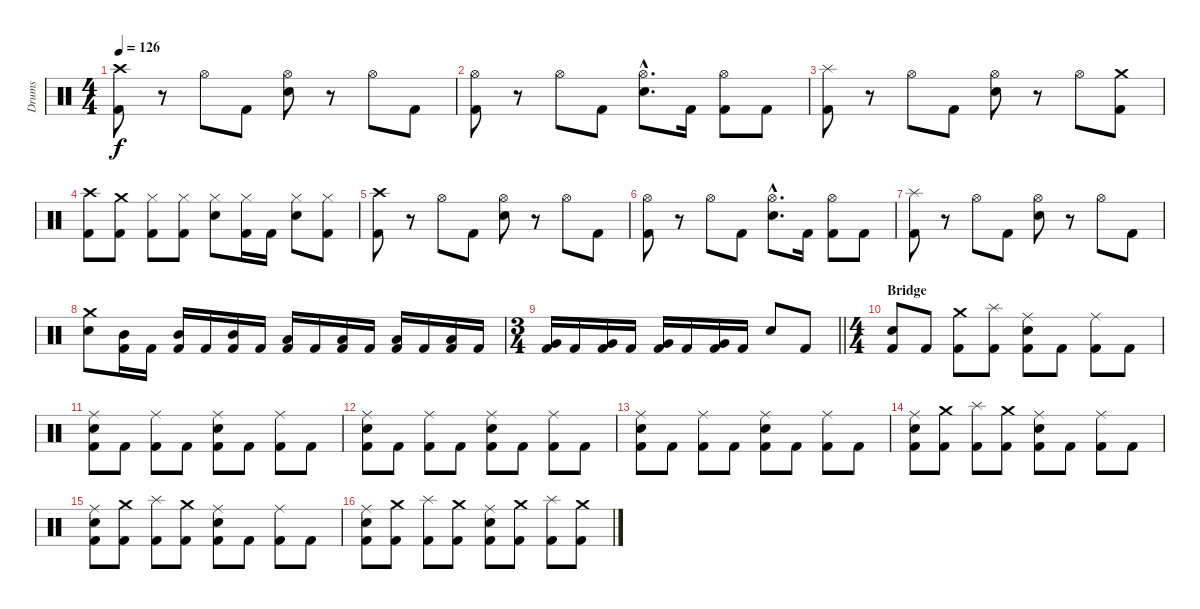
\track ("Drums" "Drums") {instrument percussion}
\staff {score}
\articulation defaults
\ts (4 4)
\tempo 126
\clef neutral
\ks c
("Crash high (hit)" "Kick (hit) 2").8{dy f} r.8 "Hi-Hat (open)".8 "Kick (hit) 2".8 ("Hi-Hat (open)" "Electric Snare (hit)").8 r.8 "Hi-Hat (open)".8 "Kick (hit) 2".8 |
("Hi-Hat (open)" "Kick (hit) 2").8 r.8 "Hi-Hat (open)".8 "Kick (hit) 2".8 ("Hi-Hat (open)"{hac} "Electric Snare (hit)"{hac}).8{d} "Kick (hit) 2".16 ("Hi-Hat (open)" "Kick (hit) 2").8 "Kick (hit) 2".8 |
("Splash (hit)" "Kick (hit) 2").8 r.8 "Hi-Hat (open)".8 "Kick (hit) 2".8 ("Hi-Hat (open)" "Electric Snare (hit)").8 r.8 "Hi-Hat (open)".8 ("Crash medium (hit)" "Kick (hit) 2").8 |
("Crash high (hit)" "Kick (hit) 2").8 ("Crash medium (hit)" "Kick (hit) 2").8 ("Hi-Hat (closed)" "Kick (hit) 2").8 ("Hi-Hat (closed)" "Kick (hit) 2").8 ("Hi-Hat (closed)" "Electric Snare (hit)").8 ("Hi-Hat (closed)" "Kick (hit) 2").16 "Kick (hit) 2".16 ("Hi-Hat (closed)" "Electric Snare (hit)").8 ("Hi-Hat (closed)" "Kick (hit) 2").8 |
("Crash high (hit)" "Kick (hit) 2").8 r.8 "Hi-Hat (open)".8 "Kick (hit) 2".8 ("Hi-Hat (open)" "Electric Snare (hit)").8 r.8 "Hi-Hat (open)".8 "Kick (hit) 2".8 |
("Hi-Hat (open)" "Kick (hit) 2").8 r.8 "Hi-Hat (open)".8 "Kick (hit) 2".8 ("Hi-Hat (open)"{hac} "Electric Snare (hit)"{hac}).8{d} "Kick (hit) 2".16 ("Hi-Hat (open)" "Kick (hit) 2").8 "Kick (hit) 2".8 |
("Splash (hit)" "Kick (hit) 2").8 r.8 "Hi-Hat (open)".8 "Kick (hit) 2".8 ("Hi-Hat (open)" "Electric Snare (hit)").8 r.8 "Hi-Hat (open)".8 "Kick (hit) 2".8 |
("Crash medium (hit)" "Electric Snare (hit)").8 ("Mid Tom (hit)" "Kick (hit) 2").16 "Kick (hit) 2".16 ("Mid Tom (hit)" "Kick (hit) 2").16 "Kick (hit) 2".16 ("Mid Tom (hit)" "Kick (hit) 2").16 "Kick (hit) 2".16 ("Low Tom (hit)" "Kick (hit) 2").16 "Kick (hit) 2".16 ("Low Tom (hit)" "Kick (hit) 2").16 "Kick (hit) 2".16 ("Low Tom (hit)" "Kick (hit) 2").16 "Kick (hit) 2".16 ("Low Tom (hit)" "Kick (hit) 2").16 "Kick (hit) 2".16 |
\ts (3 4)
\barLineRight lightlight
("Very Low Tom (hit)" "Kick (hit) 2").16 "Kick (hit) 2".16 ("Very Low Tom (hit)" "Kick (hit) 2").16 "Kick (hit) 2".16 ("Very Low Tom (hit)" "Kick (hit) 2").16 "Kick (hit) 2".16 ("Very Low Tom (hit)" "Kick (hit) 2").16 "Kick (hit) 2".16 "Electric Snare (hit)".8 "Kick (hit) 2".8 |
\ts (4 4)
\section ("" "Bridge")
("Electric Snare (hit)" "Kick (hit) 2").8 "Kick (hit) 2".8 ("Crash medium (hit)" "Kick (hit) 2").8 ("Splash (hit)" "Kick (hit) 2").8 ("Ride (middle)" "Electric Snare (hit)" "Kick (hit) 2").8 "Kick (hit) 2".8 ("Ride (middle)" "Kick (hit) 2").8 "Kick (hit) 2".8 |
("Ride (middle)" "Electric Snare (hit)" "Kick (hit) 2").8 "Kick (hit) 2".8 ("Ride (middle)" "Kick (hit) 2").8 "Kick (hit) 2".8 ("Ride (middle)" "Electric Snare (hit)" "Kick (hit) 2").8 "Kick (hit) 2".8 ("Ride (middle)" "Kick (hit) 2").8 "Kick (hit) 2".8 |
("Ride (middle)" "Electric Snare (hit)" "Kick (hit) 2").8 "Kick (hit) 2".8 ("Ride (middle)" "Kick (hit) 2").8 "Kick (hit) 2".8 ("Ride (middle)" "Electric Snare (hit)" "Kick (hit) 2").8 "Kick (hit) 2".8 ("Ride (middle)" "Kick (hit) 2").8 "Kick (hit) 2".8 |
("Ride (middle)" "Electric Snare (hit)" "Kick (hit) 2").8 "Kick (hit) 2".8 ("Ride (middle)" "Kick (hit) 2").8 "Kick (hit) 2".8 ("Ride (middle)" "Electric Snare (hit)" "Kick (hit) 2").8 "Kick (hit) 2".8 ("Ride (middle)" "Kick (hit) 2").8 "Kick (hit) 2".8 |
("Ride (middle)" "Electric Snare (hit)" "Kick (hit) 2").8 ("Crash medium (hit)" "Kick (hit) 2").8 ("Splash (hit)" "Kick (hit) 2").8 ("Crash medium (hit)" "Kick (hit) 2").8 ("Ride (middle)" "Electric Snare (hit)" "Kick (hit) 2").8 "Kick (hit) 2".8 ("Ride (middle)" "Kick (hit) 2").8 "Kick (hit) 2".8 |
("Ride (middle)" "Electric Snare (hit)" "Kick (hit) 2").8 ("Crash medium (hit)" "Kick (hit) 2").8 ("Splash (hit)" "Kick (hit) 2").8 ("Crash medium (hit)" "Kick (hit) 2").8 ("Ride (middle)" "Electric Snare (hit)" "Kick (hit) 2").8 "Kick (hit) 2".8 ("Ride (middle)" "Kick (hit) 2").8 "Kick (hit) 2".8 |
("Ride (middle)" "Electric Snare (hit)" "Kick (hit) 2").8 ("Crash medium (hit)" "Kick (hit) 2").8 ("Splash (hit)" "Kick (hit) 2").8 ("Crash medium (hit)" "Kick (hit) 2").8 ("Ride (middle)" "Electric Snare (hit)" "Kick (hit) 2").8 ("Crash medium (hit)" "Kick (hit) 2").8 ("Splash (hit)" "Kick (hit) 2").8 ("Crash medium (hit)" "Kick (hit) 2").8
